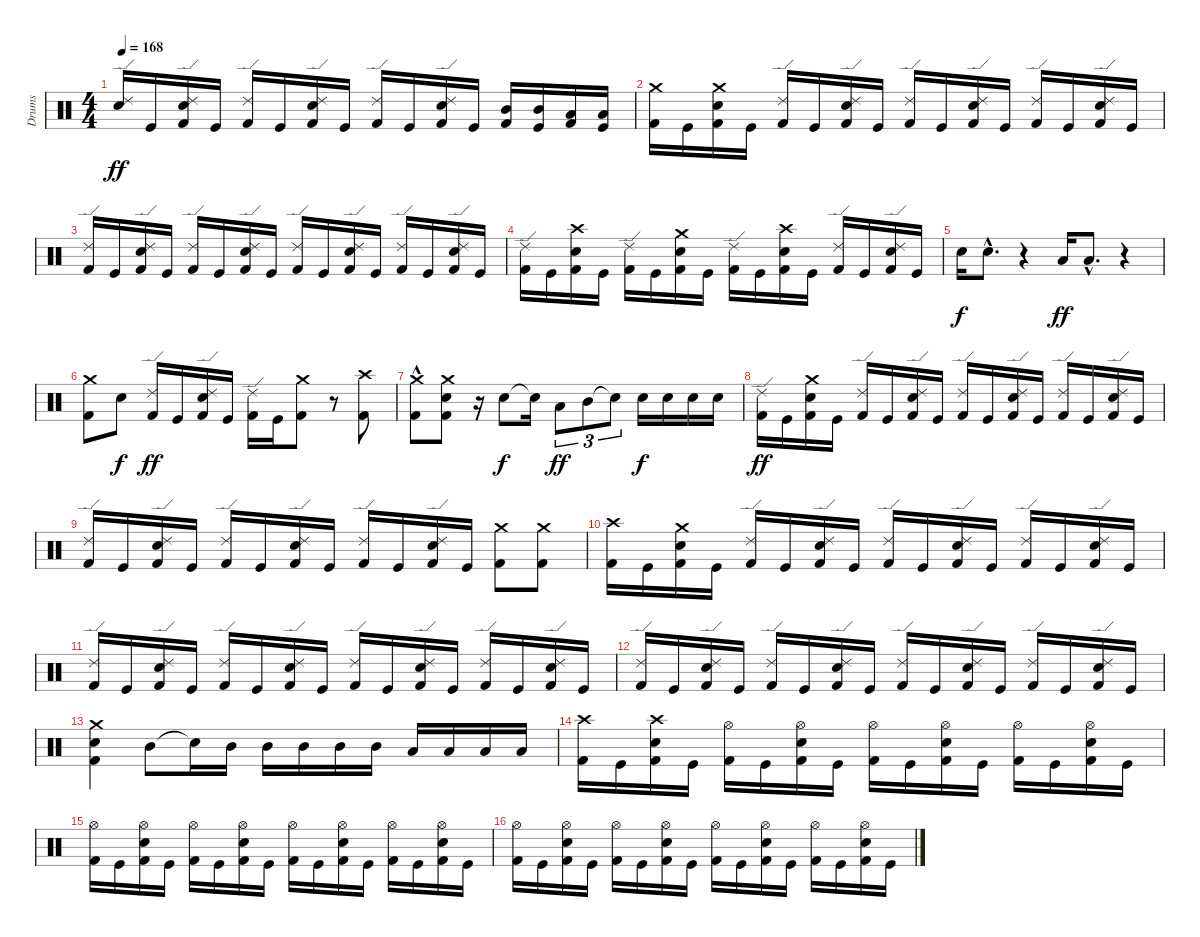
\track ("Drums" "Drums") {instrument percussion}
\staff {score}
\articulation defaults
\ts (4 4)
\tempo 168
\clef neutral
\ks c
("Ride (edge) 2" "Snare (hit)").16{dy ff} "Kick (hit)".16 ("Ride (edge) 2" "Electric Snare (hit)" "Kick (hit) 2").16 "Kick (hit)".16 ("Ride (edge) 2" "Kick (hit) 2").16 "Kick (hit)".16 ("Ride (edge) 2" "Electric Snare (hit)" "Kick (hit) 2").16 "Kick (hit)".16 ("Ride (edge) 2" "Kick (hit) 2").16 "Kick (hit)".16 ("Ride (edge) 2" "Electric Snare (hit)" "Kick (hit) 2").16 "Kick (hit)".16 ("Mid Tom (hit)" "Kick (hit) 2").16 ("Mid Tom (hit)" "Kick (hit)").16 ("Low Tom (hit)" "Kick (hit) 2").16 ("Low Tom (hit)" "Kick (hit)").16 |
("Crash medium (hit)" "Kick (hit) 2").16 "Kick (hit)".16 ("Crash medium (hit)" "Electric Snare (hit)" "Kick (hit) 2").16 "Kick (hit)".16 ("Ride (edge) 2" "Kick (hit) 2").16 "Kick (hit)".16 ("Ride (edge) 2" "Electric Snare (hit)" "Kick (hit) 2").16 "Kick (hit)".16 ("Ride (edge) 2" "Kick (hit) 2").16 "Kick (hit)".16 ("Ride (edge) 2" "Electric Snare (hit)" "Kick (hit) 2").16 "Kick (hit)".16 ("Ride (edge) 2" "Kick (hit) 2").16 "Kick (hit)".16 ("Ride (edge) 2" "Electric Snare (hit)" "Kick (hit) 2").16 "Kick (hit)".16 |
("Ride (edge) 2" "Kick (hit) 2").16 "Kick (hit)".16 ("Ride (edge) 2" "Electric Snare (hit)" "Kick (hit) 2").16 "Kick (hit)".16 ("Ride (edge) 2" "Kick (hit) 2").16 "Kick (hit)".16 ("Ride (edge) 2" "Electric Snare (hit)" "Kick (hit) 2").16 "Kick (hit)".16 ("Ride (edge) 2" "Kick (hit) 2").16 "Kick (hit)".16 ("Ride (edge) 2" "Electric Snare (hit)" "Kick (hit) 2").16 "Kick (hit)".16 ("Ride (edge) 2" "Kick (hit) 2").16 "Kick (hit)".16 ("Ride (edge) 2" "Electric Snare (hit)" "Kick (hit) 2").16 "Kick (hit)".16 |
("Ride (edge) 2" "Kick (hit) 2").16 "Kick (hit)".16 ("Crash high (hit)" "Electric Snare (hit)" "Kick (hit) 2").16 "Kick (hit)".16 ("Ride (edge) 2" "Kick (hit) 2").16 "Kick (hit)".16 ("Crash medium (hit)" "Electric Snare (hit)" "Kick (hit) 2").16 "Kick (hit)".16 ("Ride (edge) 2" "Kick (hit) 2").16 "Kick (hit)".16 ("Crash high (hit)" "Electric Snare (hit)" "Kick (hit) 2").16 "Kick (hit)".16 ("Ride (edge) 2" "Kick (hit) 2").16 "Kick (hit)".16 ("Ride (edge) 2" "Electric Snare (hit)" "Kick (hit) 2").16 "Kick (hit)".16 |
"Electric Snare (hit)".16{dy f} "Electric Snare (hit)"{hac}.8{d} r.4 "Low Tom (hit)".16{dy ff} "Low Tom (hit)"{hac}.8{d} r.4 |
("Crash medium (hit)" "Kick (hit) 2").8 "Electric Snare (hit)".8{dy f} ("Ride (edge) 2" "Kick (hit) 2").16{dy ff} "Kick (hit)".16 ("Ride (edge) 2" "Electric Snare (hit)" "Kick (hit) 2").16 "Kick (hit)".16 ("Ride (edge) 2" "Kick (hit) 2").16 "Kick (hit)".16 ("Crash medium (hit)" "Kick (hit) 2").8 r.8 ("Crash high (hit)" "Kick (hit) 2").8 |
("Crash medium (hit)"{hac} "Kick (hit) 2").8 ("Crash medium (hit)" "Electric Snare (hit)" "Kick (hit) 2").8 r.16 "Electric Snare (hit)".8{dy f} "Snare (hit)"{t}.16 "Low Tom (hit)".8{tu (3 2) dy ff} "Mid Tom (hit)".8{tu (3 2)} "Snare (hit)"{t}.8{tu (3 2)} "Electric Snare (hit)".16{dy f} "Electric Snare (hit)".16 "Electric Snare (hit)".16 "Electric Snare (hit)".16 |
("Ride (edge) 2" "Kick (hit) 2").16{dy ff} "Kick (hit)".16 ("Crash medium (hit)" "Electric Snare (hit)" "Kick (hit) 2").16 "Kick (hit)".16 ("Ride (edge) 2" "Kick (hit) 2").16 "Kick (hit)".16 ("Ride (edge) 2" "Electric Snare (hit)" "Kick (hit) 2").16 "Kick (hit)".16 ("Ride (edge) 2" "Kick (hit) 2").16 "Kick (hit)".16 ("Ride (edge) 2" "Electric Snare (hit)" "Kick (hit) 2").16 "Kick (hit)".16 ("Ride (edge) 2" "Kick (hit) 2").16 "Kick (hit)".16 ("Ride (edge) 2" "Electric Snare (hit)" "Kick (hit) 2").16 "Kick (hit)".16 |
("Ride (edge) 2" "Kick (hit) 2").16 "Kick (hit)".16 ("Ride (edge) 2" "Electric Snare (hit)" "Kick (hit) 2").16 "Kick (hit)".16 ("Ride (edge) 2" "Kick (hit) 2").16 "Kick (hit)".16 ("Ride (edge) 2" "Electric Snare (hit)" "Kick (hit) 2").16 "Kick (hit)".16 ("Ride (edge) 2" "Kick (hit) 2").16 "Kick (hit)".16 ("Ride (edge) 2" "Electric Snare (hit)" "Kick (hit) 2").16 "Kick (hit)".16 ("Crash medium (hit)" "Kick (hit) 2").8 ("Crash medium (hit)" "Kick (hit) 2").8 |
("Crash high (hit)" "Kick (hit) 2").16 "Kick (hit)".16 ("Crash medium (hit)" "Electric Snare (hit)" "Kick (hit) 2").16 "Kick (hit)".16 ("Ride (edge) 2" "Kick (hit) 2").16 "Kick (hit)".16 ("Ride (edge) 2" "Electric Snare (hit)" "Kick (hit) 2").16 "Kick (hit)".16 ("Ride (edge) 2" "Kick (hit) 2").16 "Kick (hit)".16 ("Ride (edge) 2" "Electric Snare (hit)" "Kick (hit) 2").16 "Kick (hit)".16 ("Ride (edge) 2" "Kick (hit) 2").16 "Kick (hit)".16 ("Ride (edge) 2" "Electric Snare (hit)" "Kick (hit) 2").16 "Kick (hit)".16 |
("Ride (edge) 2" "Kick (hit) 2").16 "Kick (hit)".16 ("Ride (edge) 2" "Electric Snare (hit)" "Kick (hit) 2").16 "Kick (hit)".16 ("Ride (edge) 2" "Kick (hit) 2").16 "Kick (hit)".16 ("Ride (edge) 2" "Electric Snare (hit)" "Kick (hit) 2").16 "Kick (hit)".16 ("Ride (edge) 2" "Kick (hit) 2").16 "Kick (hit)".16 ("Ride (edge) 2" "Electric Snare (hit)" "Kick (hit) 2").16 "Kick (hit)".16 ("Ride (edge) 2" "Kick (hit) 2").16 "Kick (hit)".16 ("Ride (edge) 2" "Electric Snare (hit)" "Kick (hit) 2").16 "Kick (hit)".16 |
("Ride (edge) 2" "Kick (hit) 2").16 "Kick (hit)".16 ("Ride (edge) 2" "Electric Snare (hit)" "Kick (hit) 2").16 "Kick (hit)".16 ("Ride (edge) 2" "Kick (hit) 2").16 "Kick (hit)".16 ("Ride (edge) 2" "Electric Snare (hit)" "Kick (hit) 2").16 "Kick (hit)".16 ("Ride (edge) 2" "Kick (hit) 2").16 "Kick (hit)".16 ("Ride (edge) 2" "Electric Snare (hit)" "Kick (hit) 2").16 "Kick (hit)".16 ("Ride (edge) 2" "Kick (hit) 2").16 "Kick (hit)".16 ("Ride (edge) 2" "Electric Snare (hit)" "Kick (hit) 2").16 "Kick (hit)".16 |
("Crash medium (hit)" "Electric Snare (hit)" "Kick (hit) 2").4 "Mid Tom (hit)".8 "Snare (hit)"{t}.16 "Mid Tom (hit)".16 "Mid Tom (hit)".16 "Mid Tom (hit)".16 "Mid Tom (hit)".16 "Mid Tom (hit)".16 "Low Tom (hit)".16 "Low Tom (hit)".16 "Low Tom (hit)".16 "Low Tom (hit)".16 |
("Crash high (hit)" "Kick (hit) 2").16 "Kick (hit)".16 ("Crash high (hit)" "Electric Snare (hit)" "Kick (hit) 2").16 "Kick (hit)".16 ("Hi-Hat (open)" "Kick (hit) 2").16 "Kick (hit)".16 ("Hi-Hat (open)" "Electric Snare (hit)" "Kick (hit) 2").16 "Kick (hit)".16 ("Hi-Hat (open)" "Kick (hit) 2").16 "Kick (hit)".16 ("Hi-Hat (open)" "Electric Snare (hit)" "Kick (hit) 2").16 "Kick (hit)".16 ("Hi-Hat (open)" "Kick (hit) 2").16 "Kick (hit)".16 ("Hi-Hat (open)" "Electric Snare (hit)" "Kick (hit) 2").16 "Kick (hit)".16 |
("Hi-Hat (open)" "Kick (hit) 2").16 "Kick (hit)".16 ("Hi-Hat (open)" "Electric Snare (hit)" "Kick (hit) 2").16 "Kick (hit)".16 ("Hi-Hat (open)" "Kick (hit) 2").16 "Kick (hit)".16 ("Hi-Hat (open)" "Electric Snare (hit)" "Kick (hit) 2").16 "Kick (hit)".16 ("Hi-Hat (open)" "Kick (hit) 2").16 "Kick (hit)".16 ("Hi-Hat (open)" "Electric Snare (hit)" "Kick (hit) 2").16 "Kick (hit)".16 ("Hi-Hat (open)" "Kick (hit) 2").16 "Kick (hit)".16 ("Hi-Hat (open)" "Electric Snare (hit)" "Kick (hit) 2").16 "Kick (hit)".16 |
("Hi-Hat (open)" "Kick (hit) 2").16 "Kick (hit)".16 ("Hi-Hat (open)" "Electric Snare (hit)" "Kick (hit) 2").16 "Kick (hit)".16 ("Hi-Hat (open)" "Kick (hit) 2").16 "Kick (hit)".16 ("Hi-Hat (open)" "Electric Snare (hit)" "Kick (hit) 2").16 "Kick (hit)".16 ("Hi-Hat (open)" "Kick (hit) 2").16 "Kick (hit)".16 ("Hi-Hat (open)" "Electric Snare (hit)" "Kick (hit) 2").16 "Kick (hit)".16 ("Hi-Hat (open)" "Kick (hit) 2").16 "Kick (hit)".16 ("Hi-Hat (open)" "Electric Snare (hit)" "Kick (hit) 2").16 "Kick (hit)".16
